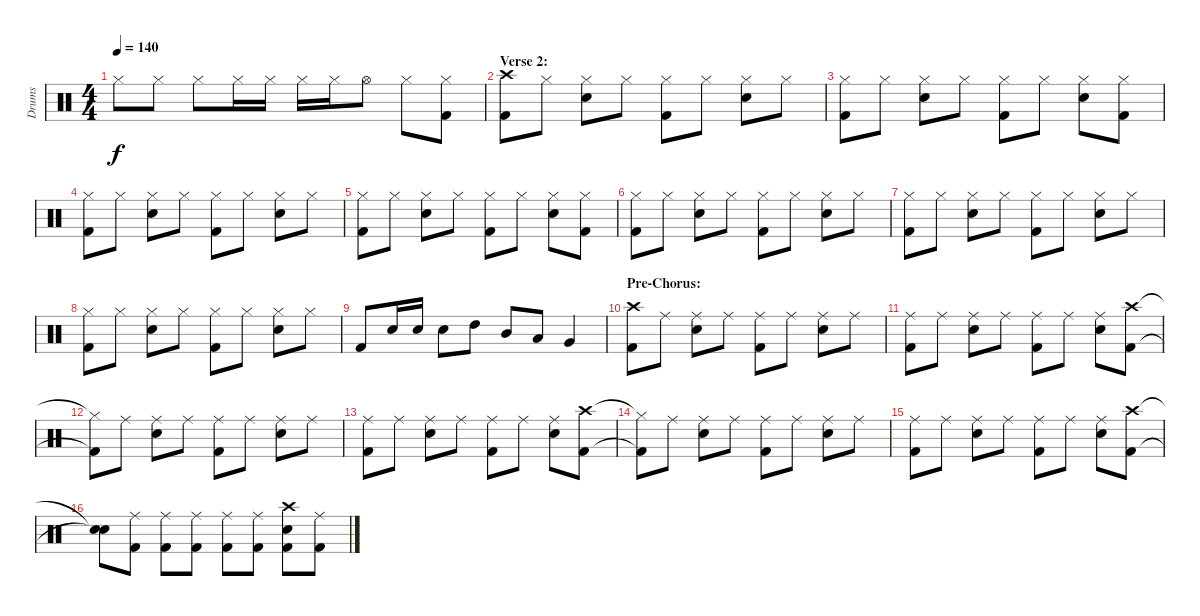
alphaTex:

\track ("Drums" "Drums") {instrument percussion}
\staff {score}
\articulation defaults
\ts (4 4)
\tempo 140
\clef neutral
\ks c "Hi-Hat (closed)".8{dy f} "Hi-Hat (closed)".8 "Hi-Hat (closed)".8 "Hi-Hat (closed)".16 "Hi-Hat (closed)".16 "Hi-Hat (closed)".16 "Hi-Hat (closed)".16 "Hi-Hat (open)".8 "Hi-Hat (closed)".8
("Hi-Hat (closed)" "Kick (hit) 2").8 |
\section ("" "Verse 2:")
("Crash high (hit)" "Kick (hit) 2").8 "Hi-Hat (closed)".8 ("Hi-Hat (closed)" "Electric Snare (hit)").8 "Hi-Hat (closed)".8 ("Hi-Hat (closed)" "Kick (hit) 2").8 "Hi-Hat (closed)".8 ("Hi-Hat (closed)" "Electric Snare (hit)").8 "Hi-Hat (closed)".8 |
("Hi-Hat (closed)" "Kick (hit) 2").8 "Hi-Hat (closed)".8 ("Hi-Hat (closed)" "Electric Snare (hit)").8 "Hi-Hat (closed)".8 ("Hi-Hat (closed)" "Kick (hit) 2").8 "Hi-Hat (closed)".8 ("Hi-Hat (closed)" "Electric Snare (hit)").8 ("Hi-Hat (closed)" "Kick (hit) 2").8 |
("Hi-Hat (closed)" "Kick (hit) 2").8 "Hi-Hat (closed)".8 ("Hi-Hat (closed)" "Electric Snare (hit)").8 "Hi-Hat (closed)".8 ("Hi-Hat (closed)" "Kick (hit) 2").8 "Hi-Hat (closed)".8 ("Hi-Hat (closed)" "Electric Snare (hit)").8 "Hi-Hat (closed)".8 |
("Hi-Hat (closed)" "Kick (hit) 2").8 "Hi-Hat (closed)".8 ("Hi-Hat (closed)" "Electric Snare (hit)").8 "Hi-Hat (closed)".8 ("Hi-Hat (closed)" "Kick (hit) 2").8 "Hi-Hat (closed)".8 ("Hi-Hat (closed)" "Electric Snare (hit)").8 ("Hi-Hat (closed)" "Kick (hit) 2").8 |
("Hi-Hat (closed)" "Kick (hit) 2").8 "Hi-Hat (closed)".8 ("Hi-Hat (closed)" "Electric Snare (hit)").8 "Hi-Hat (closed)".8 ("Hi-Hat (closed)" "Kick (hit) 2").8 "Hi-Hat (closed)".8 ("Hi-Hat (closed)" "Electric Snare (hit)").8 "Hi-Hat (closed)".8 |
("Hi-Hat (closed)" "Kick (hit) 2").8 "Hi-Hat (closed)".8 ("Hi-Hat (closed)" "Electric Snare (hit)").8 "Hi-Hat (closed)".8 ("Hi-Hat (closed)" "Kick (hit) 2").8 "Hi-Hat (closed)".8 ("Hi-Hat (closed)" "Electric Snare (hit)").8 "Hi-Hat (closed)".8 |
("Hi-Hat (closed)" "Kick (hit) 2").8 "Hi-Hat (closed)".8 ("Hi-Hat (closed)" "Electric Snare (hit)").8 "Hi-Hat (closed)".8 ("Hi-Hat (closed)" "Kick (hit) 2").8 "Hi-Hat (closed)".8 ("Hi-Hat (closed)" "Electric Snare (hit)").8 "Hi-Hat (closed)".8 |
"Kick (hit) 2".8 "Electric Snare (hit)".16 "Electric Snare (hit)".16 "Electric Snare (hit)".8 "High Tom (hit)".8 "Mid Tom (hit)".8 "Low Tom (hit)".8 "Very Low Tom (hit)".4 |
\section ("" "Pre-Chorus:")
("Crash high (hit)" "Kick (hit) 2").8 "Ride (middle)".8 ("Ride (middle)" "Electric Snare (hit)").8 "Ride (middle)".8 ("Ride (middle)" "Kick (hit) 2").8 "Ride (middle)".8 ("Ride (middle)" "Electric Snare (hit)").8 "Ride (middle)".8 |
("Ride (middle)" "Kick (hit) 2").8 "Ride (middle)".8 ("Ride (middle)" "Electric Snare (hit)").8 "Ride (middle)".8 ("Ride (middle)" "Kick (hit) 2").8 "Ride (middle)".8 ("Ride (middle)" "Electric Snare (hit)").8 ("Crash high (hit)" "Kick (hit) 2").8 |
("Hi-Hat (closed)"{t} "Kick (hit) 2"{t}).8 "Ride (middle)".8 ("Ride (middle)" "Electric Snare (hit)").8 "Ride (middle)".8 ("Ride (middle)" "Kick (hit) 2").8 "Ride (middle)".8 ("Ride (middle)" "Electric Snare (hit)").8 "Ride (middle)".8 |
("Ride (middle)" "Kick (hit) 2").8 "Ride (middle)".8 ("Ride (middle)" "Electric Snare (hit)").8 "Ride (middle)".8 ("Ride (middle)" "Kick (hit) 2").8 "Ride (middle)".8 ("Ride (middle)" "Electric Snare (hit)").8 ("Crash high (hit)" "Kick (hit) 2").8 |
("Hi-Hat (closed)"{t} "Kick (hit) 2"{t}).8 "Ride (middle)".8 ("Ride (middle)" "Electric Snare (hit)").8 "Ride (middle)".8 ("Ride (middle)" "Kick (hit) 2").8 "Ride (middle)".8 ("Ride (middle)" "Electric Snare (hit)").8 "Ride (middle)".8 |
("Ride (middle)" "Kick (hit) 2").8 "Ride (middle)".8 ("Ride (middle)" "Electric Snare (hit)").8 "Ride (middle)".8 ("Ride (middle)" "Kick (hit) 2").8 "Ride (middle)".8 ("Ride (middle)" "Electric Snare (hit)").8 ("Crash high (hit)" "Kick (hit) 2").8 |
("Snare (hit)"{t} "Snare (hit)"{t}).8 ("Ride (middle)" "Kick (hit) 2").8 ("Ride (middle)" "Kick (hit) 2").8 ("Ride (middle)" "Kick (hit) 2").8 ("Ride (middle)" "Kick (hit) 2").8 ("Ride (middle)" "Kick (hit) 2").8 ("Crash high (hit)" "Electric Snare (hit)" "Kick (hit) 2").8 ("Ride (middle)" "Kick (hit) 2").8
